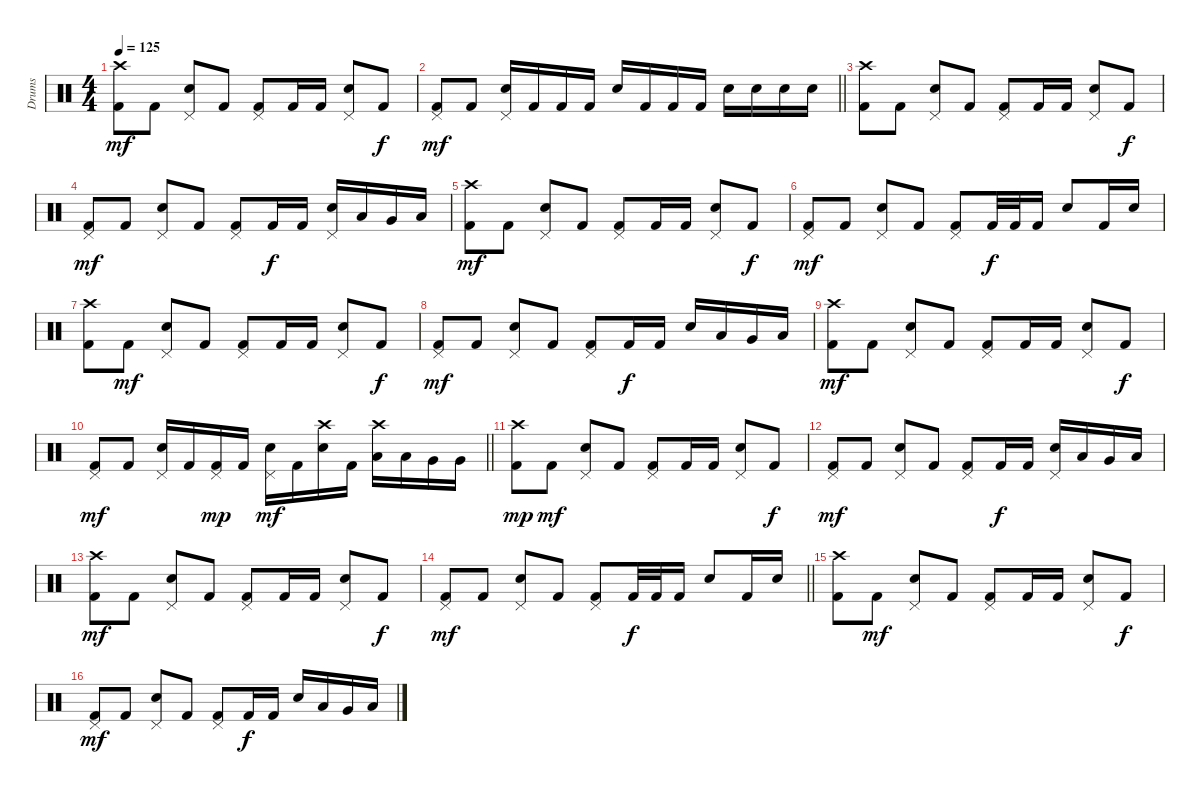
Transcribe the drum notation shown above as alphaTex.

\track ("Drums" "Drums") {instrument percussion}
\staff {score}
\articulation defaults
\ts (4 4)
\tempo 125
\clef neutral
\ks c
("Crash high (hit)" "Kick (hit) 2").8{dy mf} "Kick (hit) 2".8 ("Pedal Hi-Hat (hit)" "Snare (hit) 2").8 "Kick (hit) 2".8 ("Pedal Hi-Hat (hit)" "Kick (hit) 2").8 "Kick (hit) 2".16 "Kick (hit) 2".16 ("Pedal Hi-Hat (hit)" "Snare (hit) 2").8 "Kick (hit) 2".8{dy f} |
\barLineRight lightlight
("Pedal Hi-Hat (hit)" "Kick (hit) 2").8{dy mf} "Kick (hit) 2".8 ("Pedal Hi-Hat (hit)" "Snare (hit) 2").16 "Kick (hit) 2".16 "Kick (hit) 2".16 "Kick (hit) 2".16 "Snare (hit) 2".16 "Kick (hit) 2".16 "Kick (hit) 2".16 "Kick (hit) 2".16 "Snare (hit) 2".16 "Snare (hit) 2".16 "Snare (hit) 2".16 "Snare (hit) 2".16 |
\section ("" "")
("Crash high (hit)" "Kick (hit) 2").8 "Kick (hit) 2".8 ("Pedal Hi-Hat (hit)" "Snare (hit) 2").8 "Kick (hit) 2".8 ("Pedal Hi-Hat (hit)" "Kick (hit) 2").8 "Kick (hit) 2".16 "Kick (hit) 2".16 ("Pedal Hi-Hat (hit)" "Snare (hit) 2").8 "Kick (hit) 2".8{dy f} |
("Pedal Hi-Hat (hit)" "Kick (hit) 2").8{dy mf} "Kick (hit) 2".8 ("Pedal Hi-Hat (hit)" "Snare (hit) 2").8 "Kick (hit) 2".8 ("Pedal Hi-Hat (hit)" "Kick (hit) 2").8 "Kick (hit) 2".16{dy f} "Kick (hit) 2".16 ("Pedal Hi-Hat (hit)" "Snare (hit) 2").16 "Low Tom (hit)".16 "Very Low Tom (hit)".16 "Low Tom (hit)".16 |
("Crash high (hit)" "Kick (hit) 2").8{dy mf} "Kick (hit) 2".8 ("Pedal Hi-Hat (hit)" "Snare (hit) 2").8 "Kick (hit) 2".8 ("Pedal Hi-Hat (hit)" "Kick (hit) 2").8 "Kick (hit) 2".16 "Kick (hit) 2".16 ("Pedal Hi-Hat (hit)" "Snare (hit) 2").8 "Kick (hit) 2".8{dy f} |
("Pedal Hi-Hat (hit)" "Kick (hit) 2").8{dy mf} "Kick (hit) 2".8 ("Pedal Hi-Hat (hit)" "Snare (hit) 2").8 "Kick (hit) 2".8 ("Pedal Hi-Hat (hit)" "Kick (hit) 2").8 "Kick (hit) 2".32{dy f} "Kick (hit) 2".32 "Kick (hit) 2".16 "Snare (hit) 2".8 "Kick (hit) 2".16 "Snare (hit) 2".16 |
("Crash high (hit)" "Kick (hit) 2").8 "Kick (hit) 2".8{dy mf} ("Pedal Hi-Hat (hit)" "Snare (hit) 2").8 "Kick (hit) 2".8 ("Pedal Hi-Hat (hit)" "Kick (hit) 2").8 "Kick (hit) 2".16 "Kick (hit) 2".16 ("Pedal Hi-Hat (hit)" "Snare (hit) 2").8 "Kick (hit) 2".8{dy f} |
("Pedal Hi-Hat (hit)" "Kick (hit) 2").8{dy mf} "Kick (hit) 2".8 ("Pedal Hi-Hat (hit)" "Snare (hit) 2").8 "Kick (hit) 2".8 ("Pedal Hi-Hat (hit)" "Kick (hit) 2").8 "Kick (hit) 2".16{dy f} "Kick (hit) 2".16 "Snare (hit) 2".16 "Low Tom (hit)".16 "Very Low Tom (hit)".16 "Low Tom (hit)".16 |
("Crash high (hit)" "Kick (hit) 2").8{dy mf} "Kick (hit) 2".8 ("Pedal Hi-Hat (hit)" "Snare (hit) 2").8 "Kick (hit) 2".8 ("Pedal Hi-Hat (hit)" "Kick (hit) 2").8 "Kick (hit) 2".16 "Kick (hit) 2".16 ("Pedal Hi-Hat (hit)" "Snare (hit) 2").8 "Kick (hit) 2".8{dy f} |
\barLineRight lightlight
("Pedal Hi-Hat (hit)" "Kick (hit) 2").8{dy mf} "Kick (hit) 2".8 ("Pedal Hi-Hat (hit)" "Snare (hit) 2").16 "Kick (hit) 2".16 ("Pedal Hi-Hat (hit)" "Kick (hit) 2").16{dy mp} "Kick (hit) 2".16 ("Pedal Hi-Hat (hit)" "Snare (hit) 2").16{dy mf} "Kick (hit) 2".16 ("Crash high (hit)" "Snare (hit) 2").16 "Kick (hit) 2".16 ("Crash high (hit)" "Low Tom (hit)").16 "Low Tom (hit)".16 "Very Low Tom (hit)".16 "Very Low Tom (hit)".16 |
\section ("" "")
("Crash high (hit)" "Kick (hit) 2").8{dy mp} "Kick (hit) 2".8{dy mf} ("Pedal Hi-Hat (hit)" "Snare (hit) 2").8 "Kick (hit) 2".8 ("Pedal Hi-Hat (hit)" "Kick (hit) 2").8 "Kick (hit) 2".16 "Kick (hit) 2".16 ("Pedal Hi-Hat (hit)" "Snare (hit) 2").8 "Kick (hit) 2".8{dy f} |
("Pedal Hi-Hat (hit)" "Kick (hit) 2").8{dy mf} "Kick (hit) 2".8 ("Pedal Hi-Hat (hit)" "Snare (hit) 2").8 "Kick (hit) 2".8 ("Pedal Hi-Hat (hit)" "Kick (hit) 2").8 "Kick (hit) 2".16{dy f} "Kick (hit) 2".16 ("Pedal Hi-Hat (hit)" "Snare (hit) 2").16 "Low Tom (hit)".16 "Very Low Tom (hit)".16 "Low Tom (hit)".16 |
("Crash high (hit)" "Kick (hit) 2").8{dy mf} "Kick (hit) 2".8 ("Pedal Hi-Hat (hit)" "Snare (hit) 2").8 "Kick (hit) 2".8 ("Pedal Hi-Hat (hit)" "Kick (hit) 2").8 "Kick (hit) 2".16 "Kick (hit) 2".16 ("Pedal Hi-Hat (hit)" "Snare (hit) 2").8 "Kick (hit) 2".8{dy f} |
\barLineRight lightlight
("Pedal Hi-Hat (hit)" "Kick (hit) 2").8{dy mf} "Kick (hit) 2".8 ("Pedal Hi-Hat (hit)" "Snare (hit) 2").8 "Kick (hit) 2".8 ("Pedal Hi-Hat (hit)" "Kick (hit) 2").8 "Kick (hit) 2".32{dy f} "Kick (hit) 2".32 "Kick (hit) 2".16 "Snare (hit) 2".8 "Kick (hit) 2".16 "Snare (hit) 2".16 |
("Crash high (hit)" "Kick (hit) 2").8 "Kick (hit) 2".8{dy mf} ("Pedal Hi-Hat (hit)" "Snare (hit) 2").8 "Kick (hit) 2".8 ("Pedal Hi-Hat (hit)" "Kick (hit) 2").8 "Kick (hit) 2".16 "Kick (hit) 2".16 ("Pedal Hi-Hat (hit)" "Snare (hit) 2").8 "Kick (hit) 2".8{dy f} |
("Pedal Hi-Hat (hit)" "Kick (hit) 2").8{dy mf} "Kick (hit) 2".8 ("Pedal Hi-Hat (hit)" "Snare (hit) 2").8 "Kick (hit) 2".8 ("Pedal Hi-Hat (hit)" "Kick (hit) 2").8 "Kick (hit) 2".16{dy f} "Kick (hit) 2".16 "Snare (hit) 2".16 "Low Tom (hit)".16 "Very Low Tom (hit)".16 "Low Tom (hit)".16
